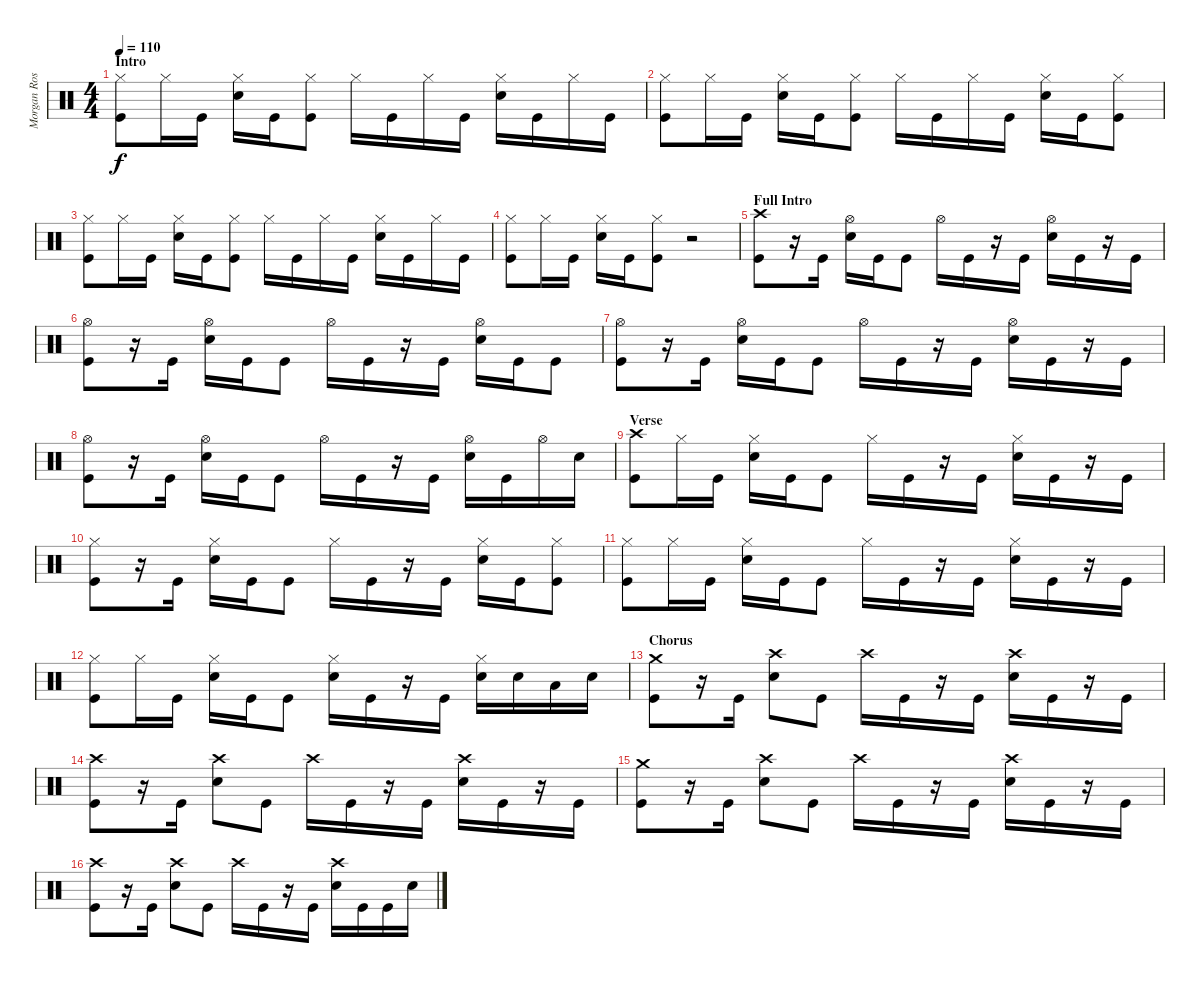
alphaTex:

\track ("Morgan Rose" "Morgan Ros") {instrument percussion}
\staff {score}
\articulation defaults
\ts (4 4)
\section ("" "Intro")
\tempo 110
\clef neutral
\ks c
("Hi-Hat (closed)" "Kick (hit)").8{dy f} "Hi-Hat (closed)".16 "Kick (hit)".16 ("Hi-Hat (closed)" "Snare (hit) 2").16 "Kick (hit)".16 ("Hi-Hat (closed)" "Kick (hit)").8 "Hi-Hat (closed)".16 "Kick (hit)".16 "Hi-Hat (closed)".16 "Kick (hit)".16 ("Hi-Hat (closed)" "Snare (hit) 2").16 "Kick (hit)".16 "Hi-Hat (closed)".16 "Kick (hit)".16 |
("Hi-Hat (closed)" "Kick (hit)").8 "Hi-Hat (closed)".16 "Kick (hit)".16 ("Hi-Hat (closed)" "Snare (hit) 2").16 "Kick (hit)".16 ("Hi-Hat (closed)" "Kick (hit)").8 "Hi-Hat (closed)".16 "Kick (hit)".16 "Hi-Hat (closed)".16 "Kick (hit)".16 ("Hi-Hat (closed)" "Snare (hit) 2").16 "Kick (hit)".16 ("Hi-Hat (closed)" "Kick (hit)").8 |
("Hi-Hat (closed)" "Kick (hit)").8 "Hi-Hat (closed)".16 "Kick (hit)".16 ("Hi-Hat (closed)" "Snare (hit) 2").16 "Kick (hit)".16 ("Hi-Hat (closed)" "Kick (hit)").8 "Hi-Hat (closed)".16 "Kick (hit)".16 "Hi-Hat (closed)".16 "Kick (hit)".16 ("Hi-Hat (closed)" "Snare (hit) 2").16 "Kick (hit)".16 "Hi-Hat (closed)".16 "Kick (hit)".16 |
("Hi-Hat (closed)" "Kick (hit)").8 "Hi-Hat (closed)".16 "Kick (hit)".16 ("Hi-Hat (closed)" "Snare (hit) 2").16 "Kick (hit)".16 ("Hi-Hat (closed)" "Kick (hit)").8 r.2 |
\section ("" "Full Intro")
("Crash high (hit)" "Kick (hit)").8 r.16 "Kick (hit)".16 ("Hi-Hat (open)" "Snare (hit) 2").16 "Kick (hit)".16 "Kick (hit)".8 "Hi-Hat (open)".16 "Kick (hit)".16 r.16 "Kick (hit)".16 ("Hi-Hat (open)" "Snare (hit) 2").16 "Kick (hit)".16 r.16 "Kick (hit)".16 |
("Hi-Hat (open)" "Kick (hit)").8 r.16 "Kick (hit)".16 ("Hi-Hat (open)" "Snare (hit) 2").16 "Kick (hit)".16 "Kick (hit)".8 "Hi-Hat (open)".16 "Kick (hit)".16 r.16 "Kick (hit)".16 ("Hi-Hat (open)" "Snare (hit) 2").16 "Kick (hit)".16 "Kick (hit)".8 |
("Hi-Hat (open)" "Kick (hit)").8 r.16 "Kick (hit)".16 ("Hi-Hat (open)" "Snare (hit) 2").16 "Kick (hit)".16 "Kick (hit)".8 "Hi-Hat (open)".16 "Kick (hit)".16 r.16 "Kick (hit)".16 ("Hi-Hat (open)" "Snare (hit) 2").16 "Kick (hit)".16 r.16 "Kick (hit)".16 |
("Hi-Hat (open)" "Kick (hit)").8 r.16 "Kick (hit)".16 ("Hi-Hat (open)" "Snare (hit) 2").16 "Kick (hit)".16 "Kick (hit)".8 "Hi-Hat (open)".16 "Kick (hit)".16 r.16 "Kick (hit)".16 ("Hi-Hat (open)" "Snare (hit) 2").16 "Kick (hit)".16 "Hi-Hat (open)".16 "Snare (hit) 2".16 |
\section ("" "Verse")
("Crash high (hit)" "Kick (hit)").8 "Hi-Hat (closed)".16 "Kick (hit)".16 ("Hi-Hat (closed)" "Snare (hit) 2").16 "Kick (hit)".16 "Kick (hit)".8 "Hi-Hat (closed)".16 "Kick (hit)".16 r.16 "Kick (hit)".16 ("Hi-Hat (closed)" "Snare (hit) 2").16 "Kick (hit)".16 r.16 "Kick (hit)".16 |
("Hi-Hat (closed)" "Kick (hit)").8 r.16 "Kick (hit)".16 ("Hi-Hat (closed)" "Snare (hit) 2").16 "Kick (hit)".16 "Kick (hit)".8 "Hi-Hat (closed)".16 "Kick (hit)".16 r.16 "Kick (hit)".16 ("Hi-Hat (closed)" "Snare (hit) 2").16 "Kick (hit)".16 ("Hi-Hat (closed)" "Kick (hit)").8 |
("Hi-Hat (closed)" "Kick (hit)").8 "Hi-Hat (closed)".16 "Kick (hit)".16 ("Hi-Hat (closed)" "Snare (hit) 2").16 "Kick (hit)".16 "Kick (hit)".8 "Hi-Hat (closed)".16 "Kick (hit)".16 r.16 "Kick (hit)".16 ("Hi-Hat (closed)" "Snare (hit) 2").16 "Kick (hit)".16 r.16 "Kick (hit)".16 |
("Hi-Hat (closed)" "Kick (hit)").8 "Hi-Hat (closed)".16 "Kick (hit)".16 ("Hi-Hat (closed)" "Snare (hit) 2").16 "Kick (hit)".16 "Kick (hit)".8 ("Hi-Hat (closed)" "Snare (hit) 2").16 "Kick (hit)".16 r.16 "Kick (hit)".16 ("Hi-Hat (closed)" "Snare (hit) 2").16 "Snare (hit) 2".16 "Low Tom (hit)".16 "Snare (hit) 2".16 |
\section ("" "Chorus")
("Crash medium (hit)" "Kick (hit)").8 r.16 "Kick (hit)".16 ("Crash high (hit)" "Snare (hit) 2").8 "Kick (hit)".8 "Crash high (hit)".16 "Kick (hit)".16 r.16 "Kick (hit)".16 ("Crash high (hit)" "Snare (hit) 2").16 "Kick (hit)".16 r.16 "Kick (hit)".16 |
("Crash high (hit)" "Kick (hit)").8 r.16 "Kick (hit)".16 ("Crash high (hit)" "Snare (hit) 2").8 "Kick (hit)".8 "Crash high (hit)".16 "Kick (hit)".16 r.16 "Kick (hit)".16 ("Crash high (hit)" "Snare (hit) 2").16 "Kick (hit)".16 r.16 "Kick (hit)".16 |
("Crash medium (hit)" "Kick (hit)").8 r.16 "Kick (hit)".16 ("Crash high (hit)" "Snare (hit) 2").8 "Kick (hit)".8 "Crash high (hit)".16 "Kick (hit)".16 r.16 "Kick (hit)".16 ("Crash high (hit)" "Snare (hit) 2").16 "Kick (hit)".16 r.16 "Kick (hit)".16 |
("Crash high (hit)" "Kick (hit)").8 r.16 "Kick (hit)".16 ("Crash high (hit)" "Snare (hit) 2").8 "Kick (hit)".8 "Crash high (hit)".16 "Kick (hit)".16 r.16 "Kick (hit)".16 ("Crash high (hit)" "Snare (hit) 2").16 "Kick (hit)".16 "Kick (hit)".16 "Snare (hit) 2".16
